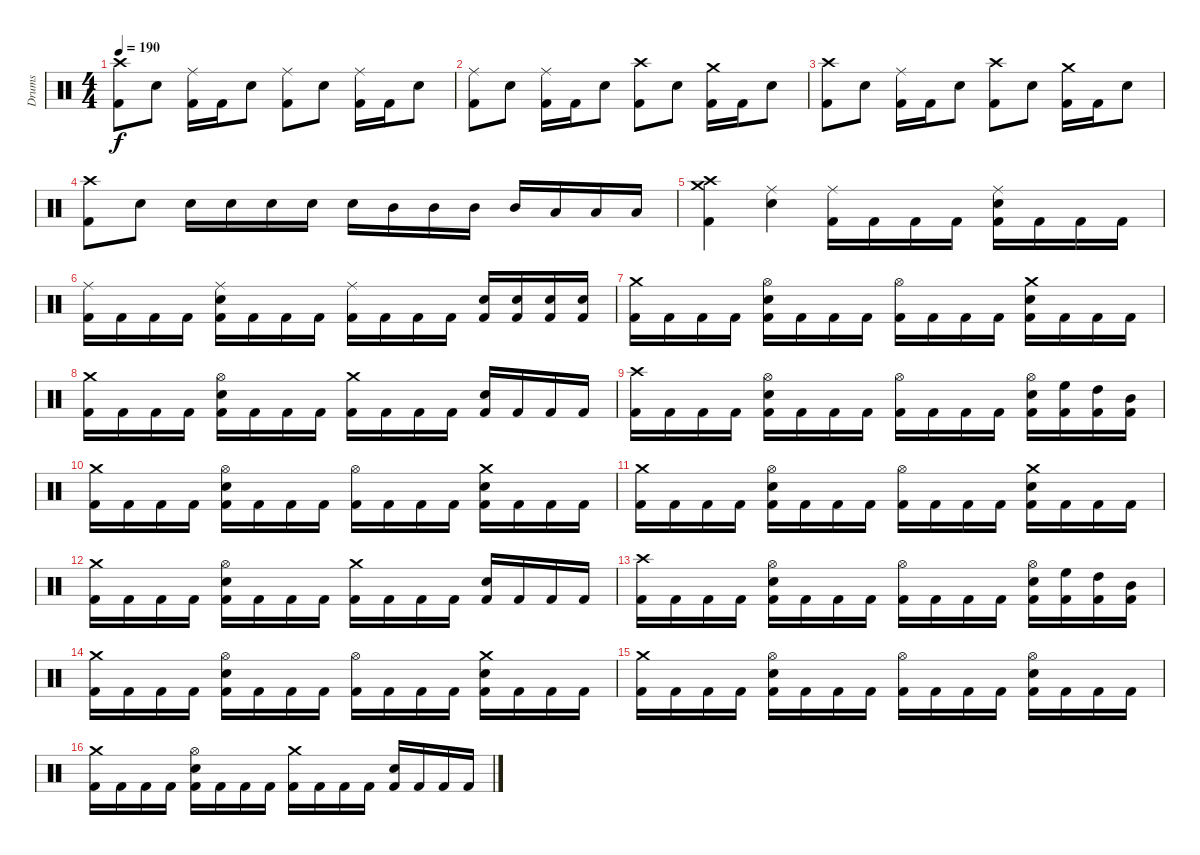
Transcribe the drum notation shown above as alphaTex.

\track ("Drums" "Drums") {instrument percussion}
\staff {score}
\articulation defaults
\ts (4 4)
\tempo 190
\clef neutral
\ks c
("Crash high (hit)" "Kick (hit) 2").8{dy f} "Electric Snare (hit)".8 ("Ride (middle)" "Kick (hit) 2").16 "Kick (hit) 2".16 "Electric Snare (hit)".8 ("Ride (middle)" "Kick (hit) 2").8 "Electric Snare (hit)".8 ("Ride (middle)" "Kick (hit) 2").16 "Kick (hit) 2".16 "Electric Snare (hit)".8 |
("Ride (middle)" "Kick (hit) 2").8 "Electric Snare (hit)".8 ("Ride (middle)" "Kick (hit) 2").16 "Kick (hit) 2".16 "Electric Snare (hit)".8 ("Crash high (hit)" "Kick (hit) 2").8 "Electric Snare (hit)".8 ("Crash medium (hit)" "Kick (hit) 2").16 "Kick (hit) 2".16 "Electric Snare (hit)".8 |
("Crash high (hit)" "Kick (hit) 2").8 "Electric Snare (hit)".8 ("Ride (middle)" "Kick (hit) 2").16 "Kick (hit) 2".16 "Electric Snare (hit)".8 ("Crash high (hit)" "Kick (hit) 2").8 "Electric Snare (hit)".8 ("Crash medium (hit)" "Kick (hit) 2").16 "Kick (hit) 2".16 "Electric Snare (hit)".8 |
("Crash high (hit)" "Kick (hit) 2").8 "Electric Snare (hit)".8 "Electric Snare (hit)".16 "Electric Snare (hit)".16 "Electric Snare (hit)".16 "Electric Snare (hit)".16 "Electric Snare (hit)".16 "Mid Tom (hit)".16 "Mid Tom (hit)".16 "Mid Tom (hit)".16 "Mid Tom (hit)".16 "Low Tom (hit)".16 "Low Tom (hit)".16 "Low Tom (hit)".16 |
("Crash medium (hit)" "Crash high (hit)" "Kick (hit) 2").4 ("Ride (middle)" "Electric Snare (hit)").4 ("Ride (middle)" "Kick (hit) 2").16 "Kick (hit) 2".16 "Kick (hit) 2".16 "Kick (hit) 2".16 ("Ride (middle)" "Electric Snare (hit)" "Kick (hit) 2").16 "Kick (hit) 2".16 "Kick (hit) 2".16 "Kick (hit) 2".16 |
("Ride (middle)" "Kick (hit) 2").16 "Kick (hit) 2".16 "Kick (hit) 2".16 "Kick (hit) 2".16 ("Ride (middle)" "Electric Snare (hit)" "Kick (hit) 2").16 "Kick (hit) 2".16 "Kick (hit) 2".16 "Kick (hit) 2".16 ("Ride (middle)" "Kick (hit) 2").16 "Kick (hit) 2".16 "Kick (hit) 2".16 "Kick (hit) 2".16 ("Electric Snare (hit)" "Kick (hit) 2").16 ("Electric Snare (hit)" "Kick (hit) 2").16 ("Electric Snare (hit)" "Kick (hit) 2").16 ("Electric Snare (hit)" "Kick (hit) 2").16 |
("Crash medium (hit)" "Kick (hit) 2").16 "Kick (hit) 2".16 "Kick (hit) 2".16 "Kick (hit) 2".16 ("Hi-Hat (open)" "Electric Snare (hit)" "Kick (hit) 2").16 "Kick (hit) 2".16 "Kick (hit) 2".16 "Kick (hit) 2".16 ("Hi-Hat (open)" "Kick (hit) 2").16 "Kick (hit) 2".16 "Kick (hit) 2".16 "Kick (hit) 2".16 ("Crash medium (hit)" "Electric Snare (hit)" "Kick (hit) 2").16 "Kick (hit) 2".16 "Kick (hit) 2".16 "Kick (hit) 2".16 |
("Crash medium (hit)" "Kick (hit) 2").16 "Kick (hit) 2".16 "Kick (hit) 2".16 "Kick (hit) 2".16 ("Hi-Hat (open)" "Electric Snare (hit)" "Kick (hit) 2").16 "Kick (hit) 2".16 "Kick (hit) 2".16 "Kick (hit) 2".16 ("Crash medium (hit)" "Kick (hit) 2").16 "Kick (hit) 2".16 "Kick (hit) 2".16 "Kick (hit) 2".16 ("Electric Snare (hit)" "Kick (hit) 2").16 "Kick (hit) 2".16 "Kick (hit) 2".16 "Kick (hit) 2".16 |
("Crash high (hit)" "Kick (hit) 2").16 "Kick (hit) 2".16 "Kick (hit) 2".16 "Kick (hit) 2".16 ("Hi-Hat (open)" "Electric Snare (hit)" "Kick (hit) 2").16 "Kick (hit) 2".16 "Kick (hit) 2".16 "Kick (hit) 2".16 ("Hi-Hat (open)" "Kick (hit) 2").16 "Kick (hit) 2".16 "Kick (hit) 2".16 "Kick (hit) 2".16 ("Hi-Hat (open)" "Electric Snare (hit)" "Kick (hit) 2").16 ("High Floor Tom (hit)" "Kick (hit) 2").16 ("High Tom (hit)" "Kick (hit) 2").16 ("Mid Tom (hit)" "Kick (hit) 2").16 |
("Crash medium (hit)" "Kick (hit) 2").16 "Kick (hit) 2".16 "Kick (hit) 2".16 "Kick (hit) 2".16 ("Hi-Hat (open)" "Electric Snare (hit)" "Kick (hit) 2").16 "Kick (hit) 2".16 "Kick (hit) 2".16 "Kick (hit) 2".16 ("Hi-Hat (open)" "Kick (hit) 2").16 "Kick (hit) 2".16 "Kick (hit) 2".16 "Kick (hit) 2".16 ("Crash medium (hit)" "Electric Snare (hit)" "Kick (hit) 2").16 "Kick (hit) 2".16 "Kick (hit) 2".16 "Kick (hit) 2".16 |
("Crash medium (hit)" "Kick (hit) 2").16 "Kick (hit) 2".16 "Kick (hit) 2".16 "Kick (hit) 2".16 ("Hi-Hat (open)" "Electric Snare (hit)" "Kick (hit) 2").16 "Kick (hit) 2".16 "Kick (hit) 2".16 "Kick (hit) 2".16 ("Hi-Hat (open)" "Kick (hit) 2").16 "Kick (hit) 2".16 "Kick (hit) 2".16 "Kick (hit) 2".16 ("Crash medium (hit)" "Electric Snare (hit)" "Kick (hit) 2").16 "Kick (hit) 2".16 "Kick (hit) 2".16 "Kick (hit) 2".16 |
("Crash medium (hit)" "Kick (hit) 2").16 "Kick (hit) 2".16 "Kick (hit) 2".16 "Kick (hit) 2".16 ("Hi-Hat (open)" "Electric Snare (hit)" "Kick (hit) 2").16 "Kick (hit) 2".16 "Kick (hit) 2".16 "Kick (hit) 2".16 ("Crash medium (hit)" "Kick (hit) 2").16 "Kick (hit) 2".16 "Kick (hit) 2".16 "Kick (hit) 2".16 ("Electric Snare (hit)" "Kick (hit) 2").16 "Kick (hit) 2".16 "Kick (hit) 2".16 "Kick (hit) 2".16 |
("Crash high (hit)" "Kick (hit) 2").16 "Kick (hit) 2".16 "Kick (hit) 2".16 "Kick (hit) 2".16 ("Hi-Hat (open)" "Electric Snare (hit)" "Kick (hit) 2").16 "Kick (hit) 2".16 "Kick (hit) 2".16 "Kick (hit) 2".16 ("Hi-Hat (open)" "Kick (hit) 2").16 "Kick (hit) 2".16 "Kick (hit) 2".16 "Kick (hit) 2".16 ("Hi-Hat (open)" "Electric Snare (hit)" "Kick (hit) 2").16 ("High Floor Tom (hit)" "Kick (hit) 2").16 ("High Tom (hit)" "Kick (hit) 2").16 ("Mid Tom (hit)" "Kick (hit) 2").16 |
("Crash medium (hit)" "Kick (hit) 2").16 "Kick (hit) 2".16 "Kick (hit) 2".16 "Kick (hit) 2".16 ("Hi-Hat (open)" "Electric Snare (hit)" "Kick (hit) 2").16 "Kick (hit) 2".16 "Kick (hit) 2".16 "Kick (hit) 2".16 ("Hi-Hat (open)" "Kick (hit) 2").16 "Kick (hit) 2".16 "Kick (hit) 2".16 "Kick (hit) 2".16 ("Crash medium (hit)" "Electric Snare (hit)" "Kick (hit) 2").16 "Kick (hit) 2".16 "Kick (hit) 2".16 "Kick (hit) 2".16 |
("Crash medium (hit)" "Kick (hit) 2").16 "Kick (hit) 2".16 "Kick (hit) 2".16 "Kick (hit) 2".16 ("Hi-Hat (open)" "Electric Snare (hit)" "Kick (hit) 2").16 "Kick (hit) 2".16 "Kick (hit) 2".16 "Kick (hit) 2".16 ("Hi-Hat (open)" "Kick (hit) 2").16 "Kick (hit) 2".16 "Kick (hit) 2".16 "Kick (hit) 2".16 ("Hi-Hat (open)" "Electric Snare (hit)" "Kick (hit) 2").16 "Kick (hit) 2".16 "Kick (hit) 2".16 "Kick (hit) 2".16 |
("Crash medium (hit)" "Kick (hit) 2").16 "Kick (hit) 2".16 "Kick (hit) 2".16 "Kick (hit) 2".16 ("Hi-Hat (open)" "Electric Snare (hit)" "Kick (hit) 2").16 "Kick (hit) 2".16 "Kick (hit) 2".16 "Kick (hit) 2".16 ("Crash medium (hit)" "Kick (hit) 2").16 "Kick (hit) 2".16 "Kick (hit) 2".16 "Kick (hit) 2".16 ("Electric Snare (hit)" "Kick (hit) 2").16 "Kick (hit) 2".16 "Kick (hit) 2".16 "Kick (hit) 2".16
